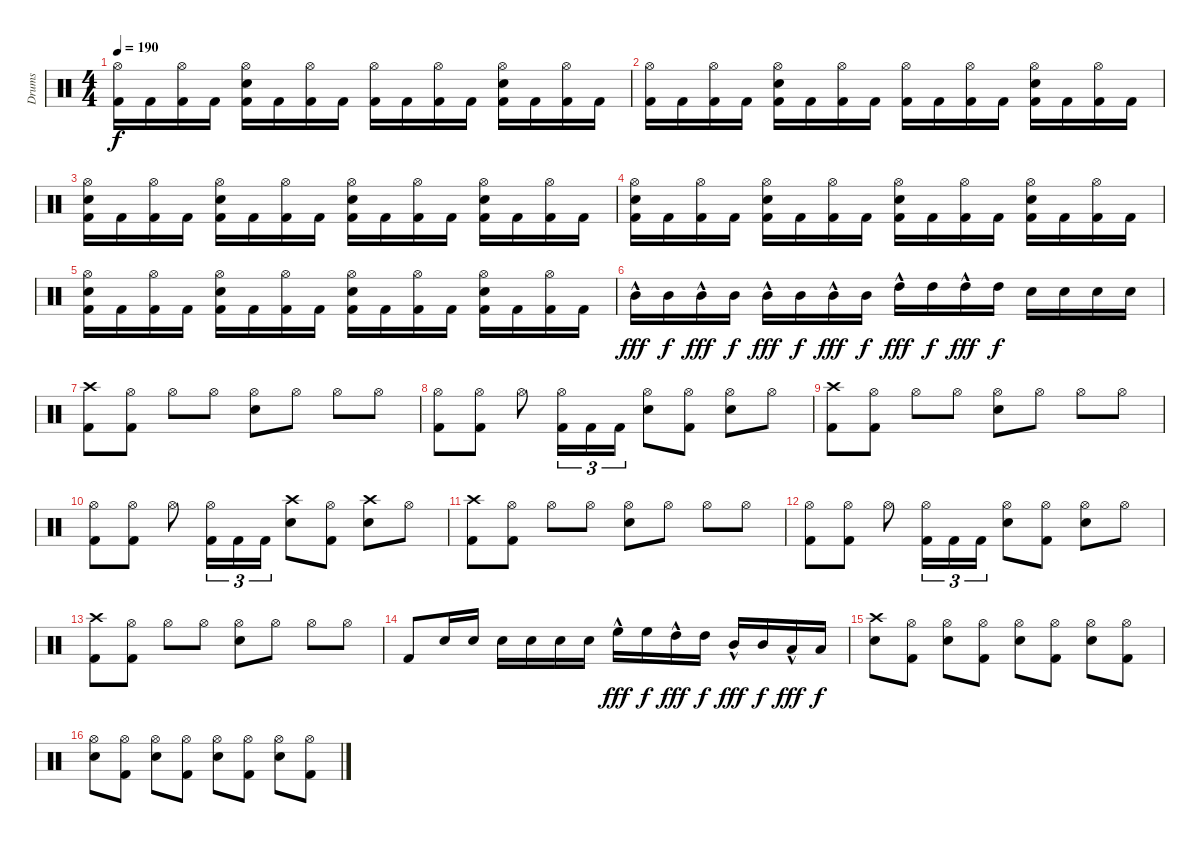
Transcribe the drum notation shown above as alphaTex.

\track ("Drums" "Drums") {instrument percussion}
\staff {score}
\articulation defaults
\ts (4 4)
\tempo 190
\clef neutral
\ks aminor
("Kick (hit) 2" "Hi-Hat (open)").16{dy f} "Kick (hit) 2".16 ("Kick (hit) 2" "Hi-Hat (open)").16 "Kick (hit) 2".16 ("Kick (hit) 2" "Electric Snare (hit)" "Hi-Hat (open)").16 "Kick (hit) 2".16 ("Kick (hit) 2" "Hi-Hat (open)").16 "Kick (hit) 2".16 ("Kick (hit) 2" "Hi-Hat (open)").16 "Kick (hit) 2".16 ("Kick (hit) 2" "Hi-Hat (open)").16 "Kick (hit) 2".16 ("Kick (hit) 2" "Electric Snare (hit)" "Hi-Hat (open)").16 "Kick (hit) 2".16 ("Kick (hit) 2" "Hi-Hat (open)").16 "Kick (hit) 2".16 |
("Kick (hit) 2" "Hi-Hat (open)").16 "Kick (hit) 2".16 ("Kick (hit) 2" "Hi-Hat (open)").16 "Kick (hit) 2".16 ("Kick (hit) 2" "Electric Snare (hit)" "Hi-Hat (open)").16 "Kick (hit) 2".16 ("Kick (hit) 2" "Hi-Hat (open)").16 "Kick (hit) 2".16 ("Kick (hit) 2" "Hi-Hat (open)").16 "Kick (hit) 2".16 ("Kick (hit) 2" "Hi-Hat (open)").16 "Kick (hit) 2".16 ("Kick (hit) 2" "Electric Snare (hit)" "Hi-Hat (open)").16 "Kick (hit) 2".16 ("Kick (hit) 2" "Hi-Hat (open)").16 "Kick (hit) 2".16 |
("Kick (hit) 2" "Electric Snare (hit)" "Hi-Hat (open)").16 "Kick (hit) 2".16 ("Kick (hit) 2" "Hi-Hat (open)").16 "Kick (hit) 2".16 ("Kick (hit) 2" "Electric Snare (hit)" "Hi-Hat (open)").16 "Kick (hit) 2".16 ("Kick (hit) 2" "Hi-Hat (open)").16 "Kick (hit) 2".16 ("Kick (hit) 2" "Electric Snare (hit)" "Hi-Hat (open)").16 "Kick (hit) 2".16 ("Kick (hit) 2" "Hi-Hat (open)").16 "Kick (hit) 2".16 ("Kick (hit) 2" "Electric Snare (hit)" "Hi-Hat (open)").16 "Kick (hit) 2".16 ("Kick (hit) 2" "Hi-Hat (open)").16 "Kick (hit) 2".16 |
("Kick (hit) 2" "Electric Snare (hit)" "Hi-Hat (open)").16 "Kick (hit) 2".16 ("Kick (hit) 2" "Hi-Hat (open)").16 "Kick (hit) 2".16 ("Kick (hit) 2" "Electric Snare (hit)" "Hi-Hat (open)").16 "Kick (hit) 2".16 ("Kick (hit) 2" "Hi-Hat (open)").16 "Kick (hit) 2".16 ("Kick (hit) 2" "Electric Snare (hit)" "Hi-Hat (open)").16 "Kick (hit) 2".16 ("Kick (hit) 2" "Hi-Hat (open)").16 "Kick (hit) 2".16 ("Kick (hit) 2" "Electric Snare (hit)" "Hi-Hat (open)").16 "Kick (hit) 2".16 ("Kick (hit) 2" "Hi-Hat (open)").16 "Kick (hit) 2".16 |
("Kick (hit) 2" "Electric Snare (hit)" "Hi-Hat (open)").16 "Kick (hit) 2".16 ("Kick (hit) 2" "Hi-Hat (open)").16 "Kick (hit) 2".16 ("Kick (hit) 2" "Electric Snare (hit)" "Hi-Hat (open)").16 "Kick (hit) 2".16 ("Kick (hit) 2" "Hi-Hat (open)").16 "Kick (hit) 2".16 ("Kick (hit) 2" "Electric Snare (hit)" "Hi-Hat (open)").16 "Kick (hit) 2".16 ("Kick (hit) 2" "Hi-Hat (open)").16 "Kick (hit) 2".16 ("Kick (hit) 2" "Electric Snare (hit)" "Hi-Hat (open)").16 "Kick (hit) 2".16 ("Kick (hit) 2" "Hi-Hat (open)").16 "Kick (hit) 2".16 |
"Mid Tom (hit)"{hac}.16{dy fff} "Mid Tom (hit)".16{dy f} "Mid Tom (hit)"{hac}.16{dy fff} "Mid Tom (hit)".16{dy f} "Mid Tom (hit)"{hac}.16{dy fff} "Mid Tom (hit)".16{dy f} "Mid Tom (hit)"{hac}.16{dy fff} "Mid Tom (hit)".16{dy f} "High Tom (hit)"{hac}.16{dy fff} "High Tom (hit)".16{dy f} "High Tom (hit)"{hac}.16{dy fff} "High Tom (hit)".16{dy f} "Electric Snare (hit)".16 "Electric Snare (hit)".16 "Electric Snare (hit)".16 "Electric Snare (hit)".16 |
("Kick (hit) 2" "Crash high (hit)").8 ("Kick (hit) 2" "Hi-Hat (open)").8 "Hi-Hat (open)".8 "Hi-Hat (open)".8 ("Electric Snare (hit)" "Hi-Hat (open)").8 "Hi-Hat (open)".8 "Hi-Hat (open)".8 "Hi-Hat (open)".8 |
("Kick (hit) 2" "Hi-Hat (open)").8 ("Kick (hit) 2" "Hi-Hat (open)").8 "Hi-Hat (open)".8 ("Kick (hit) 2" "Hi-Hat (open)").16{tu (3 2)} "Kick (hit) 2".16{tu (3 2)} "Kick (hit) 2".16{tu (3 2)} ("Electric Snare (hit)" "Hi-Hat (open)").8 ("Kick (hit) 2" "Hi-Hat (open)").8 ("Electric Snare (hit)" "Hi-Hat (open)").8 "Hi-Hat (open)".8 |
("Kick (hit) 2" "Crash high (hit)").8 ("Kick (hit) 2" "Hi-Hat (open)").8 "Hi-Hat (open)".8 "Hi-Hat (open)".8 ("Electric Snare (hit)" "Hi-Hat (open)").8 "Hi-Hat (open)".8 "Hi-Hat (open)".8 "Hi-Hat (open)".8 |
("Kick (hit) 2" "Hi-Hat (open)").8 ("Kick (hit) 2" "Hi-Hat (open)").8 "Hi-Hat (open)".8 ("Kick (hit) 2" "Hi-Hat (open)").16{tu (3 2)} "Kick (hit) 2".16{tu (3 2)} "Kick (hit) 2".16{tu (3 2)} ("Electric Snare (hit)" "Crash high (hit)").8 ("Kick (hit) 2" "Hi-Hat (open)").8 ("Electric Snare (hit)" "Crash high (hit)").8 "Hi-Hat (open)".8 |
("Kick (hit) 2" "Crash high (hit)").8 ("Kick (hit) 2" "Hi-Hat (open)").8 "Hi-Hat (open)".8 "Hi-Hat (open)".8 ("Electric Snare (hit)" "Hi-Hat (open)").8 "Hi-Hat (open)".8 "Hi-Hat (open)".8 "Hi-Hat (open)".8 |
("Kick (hit) 2" "Hi-Hat (open)").8 ("Kick (hit) 2" "Hi-Hat (open)").8 "Hi-Hat (open)".8 ("Kick (hit) 2" "Hi-Hat (open)").16{tu (3 2)} "Kick (hit) 2".16{tu (3 2)} "Kick (hit) 2".16{tu (3 2)} ("Electric Snare (hit)" "Hi-Hat (open)").8 ("Kick (hit) 2" "Hi-Hat (open)").8 ("Electric Snare (hit)" "Hi-Hat (open)").8 "Hi-Hat (open)".8 |
("Kick (hit) 2" "Crash high (hit)").8 ("Kick (hit) 2" "Hi-Hat (open)").8 "Hi-Hat (open)".8 "Hi-Hat (open)".8 ("Electric Snare (hit)" "Hi-Hat (open)").8 "Hi-Hat (open)".8 "Hi-Hat (open)".8 "Hi-Hat (open)".8 |
"Kick (hit) 2".8 "Electric Snare (hit)".16 "Electric Snare (hit)".16 "Electric Snare (hit)".16 "Electric Snare (hit)".16 "Electric Snare (hit)".16 "Electric Snare (hit)".16 "High Floor Tom (hit)"{hac}.16{dy fff} "High Floor Tom (hit)".16{dy f} "High Tom (hit)"{hac}.16{dy fff} "High Tom (hit)".16{dy f} "Mid Tom (hit)"{hac}.16{dy fff} "Mid Tom (hit)".16{dy f} "Low Tom (hit)"{hac}.16{dy fff} "Low Tom (hit)".16{dy f} |
("Electric Snare (hit)" "Crash high (hit)").8 ("Kick (hit) 2" "Hi-Hat (open)").8 ("Electric Snare (hit)" "Hi-Hat (open)").8 ("Kick (hit) 2" "Hi-Hat (open)").8 ("Electric Snare (hit)" "Hi-Hat (open)").8 ("Kick (hit) 2" "Hi-Hat (open)").8 ("Electric Snare (hit)" "Hi-Hat (open)").8 ("Kick (hit) 2" "Hi-Hat (open)").8 |
("Electric Snare (hit)" "Hi-Hat (open)").8 ("Kick (hit) 2" "Hi-Hat (open)").8 ("Electric Snare (hit)" "Hi-Hat (open)").8 ("Kick (hit) 2" "Hi-Hat (open)").8 ("Electric Snare (hit)" "Hi-Hat (open)").8 ("Kick (hit) 2" "Hi-Hat (open)").8 ("Electric Snare (hit)" "Hi-Hat (open)").8 ("Kick (hit) 2" "Hi-Hat (open)").8
